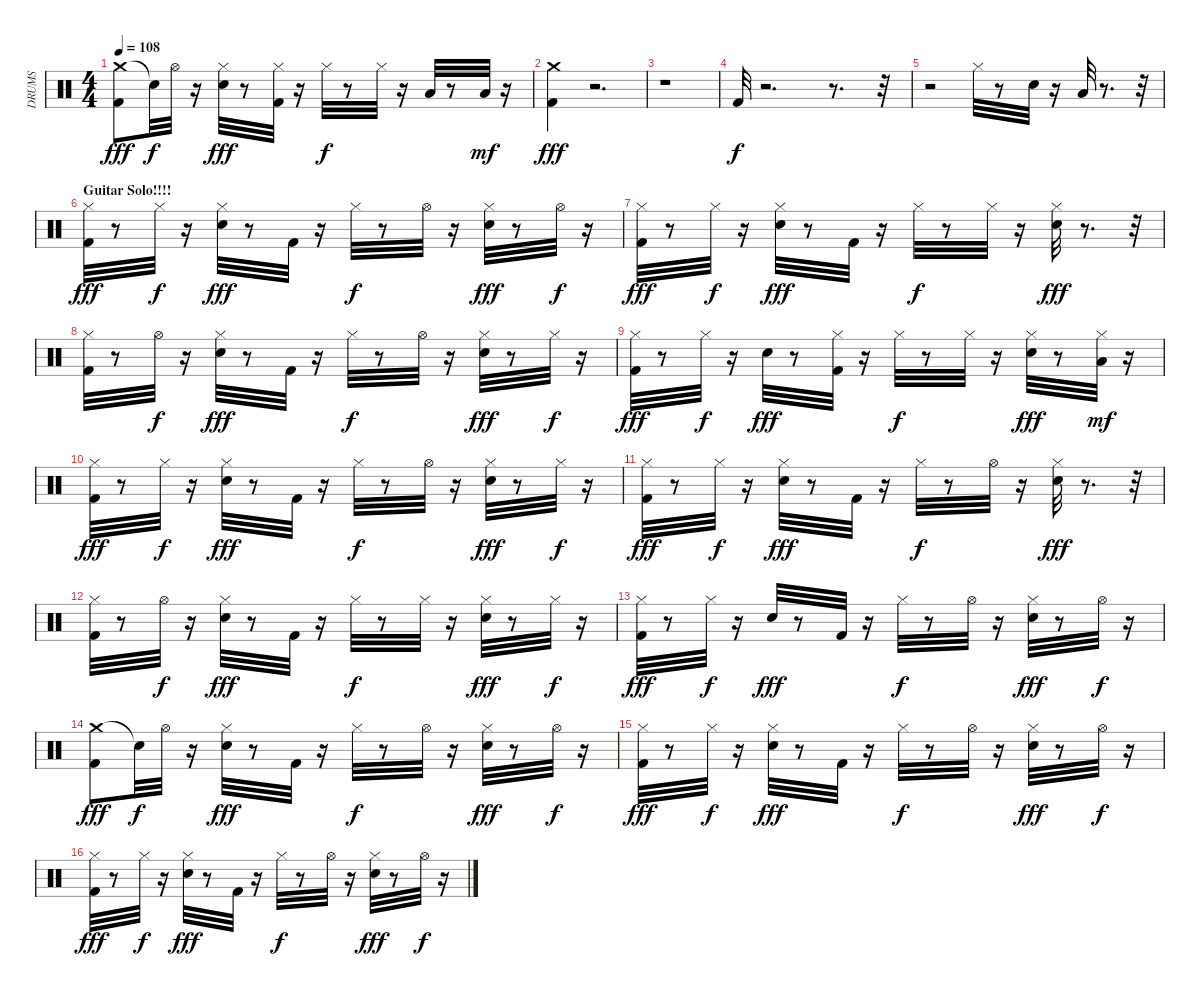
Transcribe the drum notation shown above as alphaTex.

\track ("DRUMS" "DRUMS") {instrument percussion}
\staff {score}
\articulation defaults
\ts (4 4)
\tempo 108
\clef neutral
\ks c
("Crash medium (hit)" "Kick (hit) 2").8{dy fff} "Snare (hit)"{t}.32{dy f} "Hi-Hat (open)".32 r.16 ("Hi-Hat (closed)" "Snare (hit) 2").32{dy fff} r.8 ("Hi-Hat (closed)" "Kick (hit) 2").32 r.16 "Hi-Hat (closed)".32{dy f} r.8 "Hi-Hat (closed)".32 r.16 "Low Tom (hit)".32 r.8 "Low Floor Tom (hit)".32{dy mf} r.16 |
("Crash medium (hit)" "Kick (hit) 2").4{dy fff} r.2{d} |
r.1 |
"Kick (hit) 2".32{dy f} r.2{d} r.8{d} r.32 |
r.2 "Hi-Hat (closed)".32 r.8 "Snare (hit) 2".32 r.16 "Low Floor Tom (hit)".32 r.8{d} r.32 |
\section ("" "Guitar Solo!!!!")
("Hi-Hat (closed)" "Kick (hit) 2").32{dy fff} r.8 "Hi-Hat (closed)".32{dy f} r.16 ("Hi-Hat (closed)" "Snare (hit) 2").32{dy fff} r.8 "Kick (hit) 2".32 r.16 "Hi-Hat (closed)".32{dy f} r.8 "Hi-Hat (open)".32 r.16 ("Hi-Hat (closed)" "Snare (hit) 2").32{dy fff} r.8 "Hi-Hat (open)".32{dy f} r.16 |
("Hi-Hat (closed)" "Kick (hit) 2").32{dy fff} r.8 "Hi-Hat (closed)".32{dy f} r.16 ("Hi-Hat (closed)" "Snare (hit) 2").32{dy fff} r.8 "Kick (hit) 2".32 r.16 "Hi-Hat (closed)".32{dy f} r.8 "Hi-Hat (closed)".32 r.16 ("Hi-Hat (closed)" "Snare (hit) 2").32{dy fff} r.8{d} r.32 |
("Hi-Hat (closed)" "Kick (hit) 2").32 r.8 "Hi-Hat (open)".32{dy f} r.16 ("Hi-Hat (closed)" "Snare (hit) 2").32{dy fff} r.8 "Kick (hit) 2".32 r.16 "Hi-Hat (closed)".32{dy f} r.8 "Hi-Hat (open)".32 r.16 ("Hi-Hat (closed)" "Snare (hit) 2").32{dy fff} r.8 "Hi-Hat (closed)".32{dy f} r.16 |
("Hi-Hat (closed)" "Kick (hit) 2").32{dy fff} r.8 "Hi-Hat (closed)".32{dy f} r.16 "Snare (hit) 2".32{dy fff} r.8 ("Hi-Hat (closed)" "Kick (hit) 2").32 r.16 "Hi-Hat (closed)".32{dy f} r.8 "Hi-Hat (closed)".32 r.16 ("Hi-Hat (closed)" "Snare (hit) 2").32{dy fff} r.8 ("Low Tom (hit)" "Hi-Hat (closed)").32{dy mf} r.16 |
("Hi-Hat (closed)" "Kick (hit) 2").32{dy fff} r.8 "Hi-Hat (closed)".32{dy f} r.16 ("Hi-Hat (closed)" "Snare (hit) 2").32{dy fff} r.8 "Kick (hit) 2".32 r.16 "Hi-Hat (closed)".32{dy f} r.8 "Hi-Hat (open)".32 r.16 ("Hi-Hat (closed)" "Snare (hit) 2").32{dy fff} r.8 "Hi-Hat (closed)".32{dy f} r.16 |
("Hi-Hat (closed)" "Kick (hit) 2").32{dy fff} r.8 "Hi-Hat (closed)".32{dy f} r.16 ("Hi-Hat (closed)" "Snare (hit) 2").32{dy fff} r.8 "Kick (hit) 2".32 r.16 "Hi-Hat (closed)".32{dy f} r.8 "Hi-Hat (open)".32 r.16 ("Hi-Hat (closed)" "Snare (hit) 2").32{dy fff} r.8{d} r.32 |
("Hi-Hat (closed)" "Kick (hit) 2").32 r.8 "Hi-Hat (open)".32{dy f} r.16 ("Hi-Hat (closed)" "Snare (hit) 2").32{dy fff} r.8 "Kick (hit) 2".32 r.16 "Hi-Hat (closed)".32{dy f} r.8 "Hi-Hat (closed)".32 r.16 ("Hi-Hat (closed)" "Snare (hit) 2").32{dy fff} r.8 "Hi-Hat (closed)".32{dy f} r.16 |
("Hi-Hat (closed)" "Kick (hit) 2").32{dy fff} r.8 "Hi-Hat (closed)".32{dy f} r.16 "Snare (hit) 2".32{dy fff} r.8 "Kick (hit) 2".32 r.16 "Hi-Hat (closed)".32{dy f} r.8 "Hi-Hat (open)".32 r.16 ("Hi-Hat (closed)" "Snare (hit) 2").32{dy fff} r.8 "Hi-Hat (open)".32{dy f} r.16 |
("Crash medium (hit)" "Kick (hit) 2").8{dy fff} "Snare (hit)"{t}.32{dy f} "Hi-Hat (open)".32 r.16 ("Hi-Hat (closed)" "Snare (hit) 2").32{dy fff} r.8 "Kick (hit) 2".32 r.16 "Hi-Hat (closed)".32{dy f} r.8 "Hi-Hat (open)".32 r.16 ("Hi-Hat (closed)" "Snare (hit) 2").32{dy fff} r.8 "Hi-Hat (open)".32{dy f} r.16 |
("Hi-Hat (closed)" "Kick (hit) 2").32{dy fff} r.8 "Hi-Hat (closed)".32{dy f} r.16 ("Hi-Hat (closed)" "Snare (hit) 2").32{dy fff} r.8 "Kick (hit) 2".32 r.16 "Hi-Hat (closed)".32{dy f} r.8 "Hi-Hat (open)".32 r.16 ("Hi-Hat (closed)" "Snare (hit) 2").32{dy fff} r.8 "Hi-Hat (open)".32{dy f} r.16 |
("Hi-Hat (closed)" "Kick (hit) 2").32{dy fff} r.8 "Hi-Hat (closed)".32{dy f} r.16 ("Hi-Hat (closed)" "Snare (hit) 2").32{dy fff} r.8 "Kick (hit) 2".32 r.16 "Hi-Hat (closed)".32{dy f} r.8 "Hi-Hat (open)".32 r.16 ("Hi-Hat (closed)" "Snare (hit) 2").32{dy fff} r.8 "Hi-Hat (open)".32{dy f} r.16
